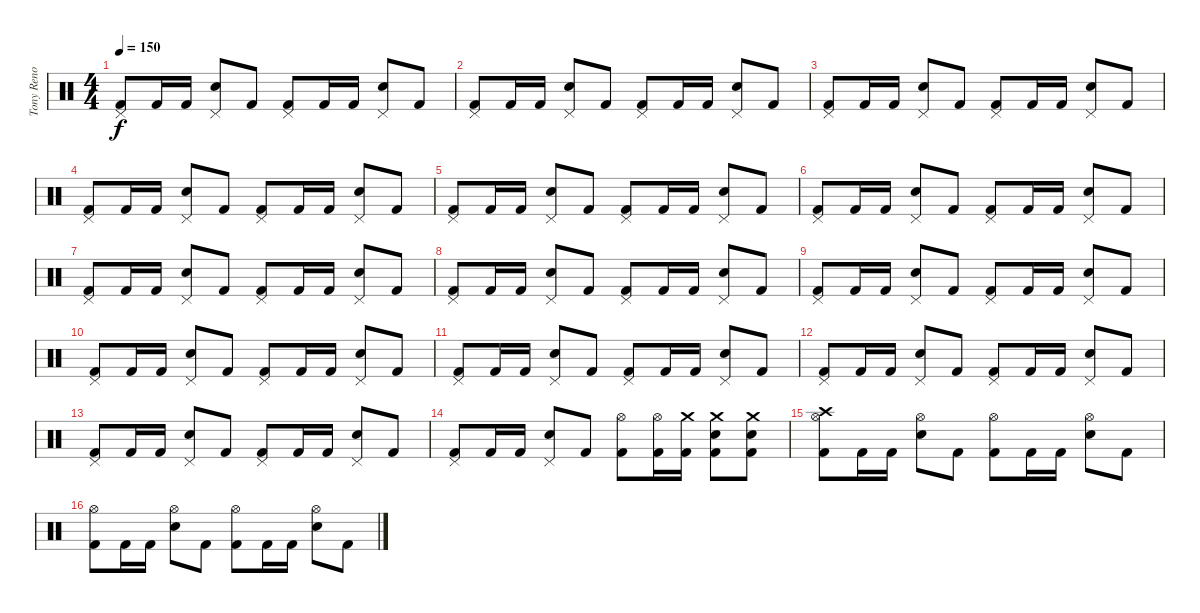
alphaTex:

\track ("Tony Reno" "Tony Reno") {instrument percussion}
\staff {score}
\articulation defaults
\ts (4 4)
\tempo 150
\clef neutral
\ks c
("Kick (hit) 2" "Pedal Hi-Hat (hit)").8{dy f} "Kick (hit) 2".16 "Kick (hit) 2".16 ("Snare (hit) 2" "Pedal Hi-Hat (hit)").8 "Kick (hit) 2".8 ("Kick (hit) 2" "Pedal Hi-Hat (hit)").8 "Kick (hit) 2".16 "Kick (hit) 2".16 ("Snare (hit) 2" "Pedal Hi-Hat (hit)").8 "Kick (hit) 2".8 |
("Kick (hit) 2" "Pedal Hi-Hat (hit)").8 "Kick (hit) 2".16 "Kick (hit) 2".16 ("Snare (hit) 2" "Pedal Hi-Hat (hit)").8 "Kick (hit) 2".8 ("Kick (hit) 2" "Pedal Hi-Hat (hit)").8 "Kick (hit) 2".16 "Kick (hit) 2".16 ("Snare (hit) 2" "Pedal Hi-Hat (hit)").8 "Kick (hit) 2".8 |
("Kick (hit) 2" "Pedal Hi-Hat (hit)").8 "Kick (hit) 2".16 "Kick (hit) 2".16 ("Snare (hit) 2" "Pedal Hi-Hat (hit)").8 "Kick (hit) 2".8 ("Kick (hit) 2" "Pedal Hi-Hat (hit)").8 "Kick (hit) 2".16 "Kick (hit) 2".16 ("Snare (hit) 2" "Pedal Hi-Hat (hit)").8 "Kick (hit) 2".8 |
("Kick (hit) 2" "Pedal Hi-Hat (hit)").8 "Kick (hit) 2".16 "Kick (hit) 2".16 ("Snare (hit) 2" "Pedal Hi-Hat (hit)").8 "Kick (hit) 2".8 ("Kick (hit) 2" "Pedal Hi-Hat (hit)").8 "Kick (hit) 2".16 "Kick (hit) 2".16 ("Snare (hit) 2" "Pedal Hi-Hat (hit)").8 "Kick (hit) 2".8 |
("Kick (hit) 2" "Pedal Hi-Hat (hit)").8 "Kick (hit) 2".16 "Kick (hit) 2".16 ("Snare (hit) 2" "Pedal Hi-Hat (hit)").8 "Kick (hit) 2".8 ("Kick (hit) 2" "Pedal Hi-Hat (hit)").8 "Kick (hit) 2".16 "Kick (hit) 2".16 ("Snare (hit) 2" "Pedal Hi-Hat (hit)").8 "Kick (hit) 2".8 |
("Kick (hit) 2" "Pedal Hi-Hat (hit)").8 "Kick (hit) 2".16 "Kick (hit) 2".16 ("Snare (hit) 2" "Pedal Hi-Hat (hit)").8 "Kick (hit) 2".8 ("Kick (hit) 2" "Pedal Hi-Hat (hit)").8 "Kick (hit) 2".16 "Kick (hit) 2".16 ("Snare (hit) 2" "Pedal Hi-Hat (hit)").8 "Kick (hit) 2".8 |
("Kick (hit) 2" "Pedal Hi-Hat (hit)").8 "Kick (hit) 2".16 "Kick (hit) 2".16 ("Snare (hit) 2" "Pedal Hi-Hat (hit)").8 "Kick (hit) 2".8 ("Kick (hit) 2" "Pedal Hi-Hat (hit)").8 "Kick (hit) 2".16 "Kick (hit) 2".16 ("Snare (hit) 2" "Pedal Hi-Hat (hit)").8 "Kick (hit) 2".8 |
("Kick (hit) 2" "Pedal Hi-Hat (hit)").8 "Kick (hit) 2".16 "Kick (hit) 2".16 ("Snare (hit) 2" "Pedal Hi-Hat (hit)").8 "Kick (hit) 2".8 ("Kick (hit) 2" "Pedal Hi-Hat (hit)").8 "Kick (hit) 2".16 "Kick (hit) 2".16 ("Snare (hit) 2" "Pedal Hi-Hat (hit)").8 "Kick (hit) 2".8 |
("Kick (hit) 2" "Pedal Hi-Hat (hit)").8 "Kick (hit) 2".16 "Kick (hit) 2".16 ("Snare (hit) 2" "Pedal Hi-Hat (hit)").8 "Kick (hit) 2".8 ("Kick (hit) 2" "Pedal Hi-Hat (hit)").8 "Kick (hit) 2".16 "Kick (hit) 2".16 ("Snare (hit) 2" "Pedal Hi-Hat (hit)").8 "Kick (hit) 2".8 |
("Kick (hit) 2" "Pedal Hi-Hat (hit)").8 "Kick (hit) 2".16 "Kick (hit) 2".16 ("Snare (hit) 2" "Pedal Hi-Hat (hit)").8 "Kick (hit) 2".8 ("Kick (hit) 2" "Pedal Hi-Hat (hit)").8 "Kick (hit) 2".16 "Kick (hit) 2".16 ("Snare (hit) 2" "Pedal Hi-Hat (hit)").8 "Kick (hit) 2".8 |
("Kick (hit) 2" "Pedal Hi-Hat (hit)").8 "Kick (hit) 2".16 "Kick (hit) 2".16 ("Snare (hit) 2" "Pedal Hi-Hat (hit)").8 "Kick (hit) 2".8 ("Kick (hit) 2" "Pedal Hi-Hat (hit)").8 "Kick (hit) 2".16 "Kick (hit) 2".16 ("Snare (hit) 2" "Pedal Hi-Hat (hit)").8 "Kick (hit) 2".8 |
("Kick (hit) 2" "Pedal Hi-Hat (hit)").8 "Kick (hit) 2".16 "Kick (hit) 2".16 ("Snare (hit) 2" "Pedal Hi-Hat (hit)").8 "Kick (hit) 2".8 ("Kick (hit) 2" "Pedal Hi-Hat (hit)").8 "Kick (hit) 2".16 "Kick (hit) 2".16 ("Snare (hit) 2" "Pedal Hi-Hat (hit)").8 "Kick (hit) 2".8 |
("Kick (hit) 2" "Pedal Hi-Hat (hit)").8 "Kick (hit) 2".16 "Kick (hit) 2".16 ("Snare (hit) 2" "Pedal Hi-Hat (hit)").8 "Kick (hit) 2".8 ("Kick (hit) 2" "Pedal Hi-Hat (hit)").8 "Kick (hit) 2".16 "Kick (hit) 2".16 ("Snare (hit) 2" "Pedal Hi-Hat (hit)").8 "Kick (hit) 2".8 |
("Kick (hit) 2" "Pedal Hi-Hat (hit)").8 "Kick (hit) 2".16 "Kick (hit) 2".16 ("Snare (hit) 2" "Pedal Hi-Hat (hit)").8 "Kick (hit) 2".8 ("Kick (hit) 2" "Hi-Hat (open)").8 ("Kick (hit) 2" "Hi-Hat (open)").16 ("Kick (hit) 2" "Crash medium (hit)").16 ("Kick (hit) 2" "Snare (hit) 2" "Crash medium (hit)").8 ("Kick (hit) 2" "Snare (hit) 2" "Crash medium (hit)").8 |
("Kick (hit) 2" "Hi-Hat (open)" "Crash high (hit)").8 "Kick (hit) 2".16 "Kick (hit) 2".16 ("Snare (hit) 2" "Hi-Hat (open)").8 "Kick (hit) 2".8 ("Kick (hit) 2" "Hi-Hat (open)").8 "Kick (hit) 2".16 "Kick (hit) 2".16 ("Snare (hit) 2" "Hi-Hat (open)").8 "Kick (hit) 2".8 |
("Kick (hit) 2" "Hi-Hat (open)").8 "Kick (hit) 2".16 "Kick (hit) 2".16 ("Snare (hit) 2" "Hi-Hat (open)").8 "Kick (hit) 2".8 ("Kick (hit) 2" "Hi-Hat (open)").8 "Kick (hit) 2".16 "Kick (hit) 2".16 ("Snare (hit) 2" "Hi-Hat (open)").8 "Kick (hit) 2".8
